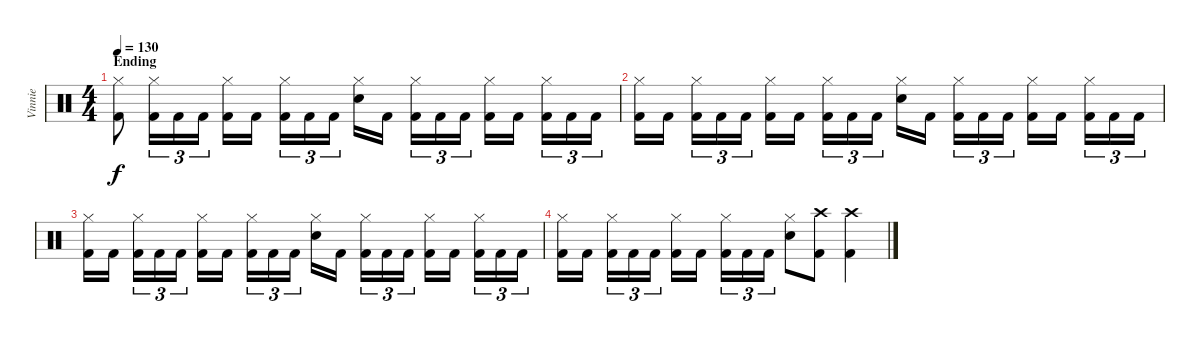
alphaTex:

\track ("Vinnie" "Vinnie") {instrument percussion}
\staff {score}
\articulation defaults
\ts (4 4)
\section ("" "Ending")
\tempo 130
\clef neutral
\ks c
("Hi-Hat (closed)" "Kick (hit) 2").8{dy f} ("Hi-Hat (closed)" "Kick (hit) 2").16{tu (3 2)} "Kick (hit) 2".16{tu (3 2)} "Kick (hit) 2".16{tu (3 2)} ("Hi-Hat (closed)" "Kick (hit) 2").16 "Kick (hit) 2".16 ("Hi-Hat (closed)" "Kick (hit) 2").16{tu (3 2)} "Kick (hit) 2".16{tu (3 2)} "Kick (hit) 2".16{tu (3 2)} ("Hi-Hat (closed)" "Electric Snare (hit)").16 "Kick (hit) 2".16 ("Hi-Hat (closed)" "Kick (hit) 2").16{tu (3 2)} "Kick (hit) 2".16{tu (3 2)} "Kick (hit) 2".16{tu (3 2)} ("Hi-Hat (closed)" "Kick (hit) 2").16 "Kick (hit) 2".16 ("Hi-Hat (closed)" "Kick (hit) 2").16{tu (3 2)} "Kick (hit) 2".16{tu (3 2)} "Kick (hit) 2".16{tu (3 2)} |
("Hi-Hat (closed)" "Kick (hit) 2").16 "Kick (hit) 2".16 ("Hi-Hat (closed)" "Kick (hit) 2").16{tu (3 2)} "Kick (hit) 2".16{tu (3 2)} "Kick (hit) 2".16{tu (3 2)} ("Hi-Hat (closed)" "Kick (hit) 2").16 "Kick (hit) 2".16 ("Hi-Hat (closed)" "Kick (hit) 2").16{tu (3 2)} "Kick (hit) 2".16{tu (3 2)} "Kick (hit) 2".16{tu (3 2)} ("Hi-Hat (closed)" "Electric Snare (hit)").16 "Kick (hit) 2".16 ("Hi-Hat (closed)" "Kick (hit) 2").16{tu (3 2)} "Kick (hit) 2".16{tu (3 2)} "Kick (hit) 2".16{tu (3 2)} ("Hi-Hat (closed)" "Kick (hit) 2").16 "Kick (hit) 2".16 ("Hi-Hat (closed)" "Kick (hit) 2").16{tu (3 2)} "Kick (hit) 2".16{tu (3 2)} "Kick (hit) 2".16{tu (3 2)} |
("Hi-Hat (closed)" "Kick (hit) 2").16 "Kick (hit) 2".16 ("Hi-Hat (closed)" "Kick (hit) 2").16{tu (3 2)} "Kick (hit) 2".16{tu (3 2)} "Kick (hit) 2".16{tu (3 2)} ("Hi-Hat (closed)" "Kick (hit) 2").16 "Kick (hit) 2".16 ("Hi-Hat (closed)" "Kick (hit) 2").16{tu (3 2)} "Kick (hit) 2".16{tu (3 2)} "Kick (hit) 2".16{tu (3 2)} ("Hi-Hat (closed)" "Electric Snare (hit)").16 "Kick (hit) 2".16 ("Hi-Hat (closed)" "Kick (hit) 2").16{tu (3 2)} "Kick (hit) 2".16{tu (3 2)} "Kick (hit) 2".16{tu (3 2)} ("Hi-Hat (closed)" "Kick (hit) 2").16 "Kick (hit) 2".16 ("Hi-Hat (closed)" "Kick (hit) 2").16{tu (3 2)} "Kick (hit) 2".16{tu (3 2)} "Kick (hit) 2".16{tu (3 2)} |
("Hi-Hat (closed)" "Kick (hit) 2").16 "Kick (hit) 2".16 ("Hi-Hat (closed)" "Kick (hit) 2").16{tu (3 2)} "Kick (hit) 2".16{tu (3 2)} "Kick (hit) 2".16{tu (3 2)} ("Hi-Hat (closed)" "Kick (hit) 2").16 "Kick (hit) 2".16 ("Hi-Hat (closed)" "Kick (hit) 2").16{tu (3 2)} "Kick (hit) 2".16{tu (3 2)} "Kick (hit) 2".16{tu (3 2)} ("Hi-Hat (closed)" "Electric Snare (hit)").8 ("Crash high (hit)" "Kick (hit) 2").8 ("Crash high (hit)" "Kick (hit) 2").4
